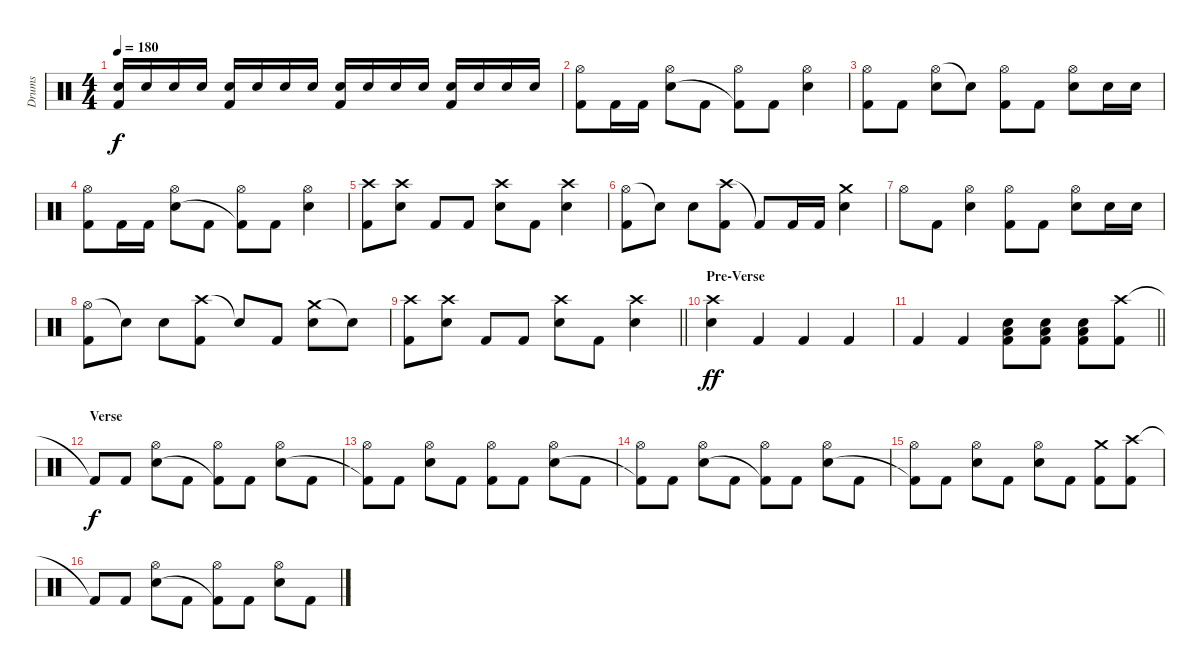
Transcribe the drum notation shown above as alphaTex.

\track ("Drums" "Drums") {instrument percussion}
\staff {score}
\articulation defaults
\ts (4 4)
\tempo 180
\clef neutral
\ks c
("Electric Snare (hit)" "Kick (hit) 2").16{dy f} "Electric Snare (hit)".16 "Electric Snare (hit)".16 "Electric Snare (hit)".16 ("Electric Snare (hit)" "Kick (hit) 2").16 "Electric Snare (hit)".16 "Electric Snare (hit)".16 "Electric Snare (hit)".16 ("Electric Snare (hit)" "Kick (hit) 2").16 "Electric Snare (hit)".16 "Electric Snare (hit)".16 "Electric Snare (hit)".16 ("Electric Snare (hit)" "Kick (hit) 2").16 "Electric Snare (hit)".16 "Electric Snare (hit)".16 "Electric Snare (hit)".16 |
("Hi-Hat (open)" "Kick (hit) 2").8 "Kick (hit) 2".16 "Kick (hit) 2".16 ("Hi-Hat (open)" "Electric Snare (hit)").8 "Kick (hit) 2".8 ("Hi-Hat (open)" "Kick (hit) 2"{t}).8 "Kick (hit) 2".8 ("Hi-Hat (open)" "Electric Snare (hit)").4 |
("Hi-Hat (open)" "Kick (hit) 2").8 "Kick (hit) 2".8 ("Hi-Hat (open)" "Electric Snare (hit)").8 "Snare (hit)"{t}.8 ("Hi-Hat (open)" "Kick (hit) 2").8 "Kick (hit) 2".8 ("Hi-Hat (open)" "Electric Snare (hit)").8 "Electric Snare (hit)".16 "Electric Snare (hit)".16 |
("Hi-Hat (open)" "Kick (hit) 2").8 "Kick (hit) 2".16 "Kick (hit) 2".16 ("Hi-Hat (open)" "Electric Snare (hit)").8 "Kick (hit) 2".8 ("Hi-Hat (open)" "Kick (hit) 2"{t}).8 "Kick (hit) 2".8 ("Hi-Hat (open)" "Electric Snare (hit)").4 |
("Crash high (hit)" "Kick (hit) 2").8 ("Crash high (hit)" "Electric Snare (hit)").8 "Kick (hit) 2".8 "Kick (hit) 2".8 ("Crash high (hit)" "Electric Snare (hit)").8 "Kick (hit) 2".8 ("Crash high (hit)" "Electric Snare (hit)").4 |
("Hi-Hat (open)" "Kick (hit) 2").8 "Snare (hit)"{t}.8 "Electric Snare (hit)".8 ("Crash high (hit)" "Kick (hit) 2").8 "Kick (hit) 2"{t}.8 "Kick (hit) 2".16 "Kick (hit) 2".16 ("Crash medium (hit)" "Electric Snare (hit)").4 |
"Hi-Hat (open)".8 "Kick (hit) 2".8 ("Hi-Hat (open)" "Electric Snare (hit)").4 ("Hi-Hat (open)" "Kick (hit) 2").8 "Kick (hit) 2".8 ("Hi-Hat (open)" "Electric Snare (hit)").8 "Electric Snare (hit)".16 "Electric Snare (hit)".16 |
("Hi-Hat (open)" "Kick (hit) 2").8 "Snare (hit)"{t}.8 "Electric Snare (hit)".8 ("Crash high (hit)" "Kick (hit) 2").8 "Snare (hit)"{t}.8 "Kick (hit) 2".8 ("Crash medium (hit)" "Electric Snare (hit)").8 "Snare (hit)"{t}.8 |
\barLineRight lightlight
("Crash high (hit)" "Kick (hit) 2").8 ("Crash high (hit)" "Electric Snare (hit)").8 "Kick (hit) 2".8 "Kick (hit) 2".8 ("Crash high (hit)" "Electric Snare (hit)").8 "Kick (hit) 2".8 ("Crash high (hit)" "Electric Snare (hit)").4 |
\section ("" "Pre-Verse")
("Crash high (hit)" "Electric Snare (hit)").4{dy ff} "Kick (hit) 2".4 "Kick (hit) 2".4 "Kick (hit) 2".4 |
\barLineRight lightlight "Kick (hit) 2".4 "Kick (hit) 2".4
("Low Floor Tom (hit)" "Electric Snare (hit)" "Kick (hit) 2").8 ("Low Floor Tom (hit)" "Electric Snare (hit)" "Kick (hit) 2").8 ("Low Floor Tom (hit)" "Electric Snare (hit)" "Kick (hit) 2").8 ("Crash high (hit)" "Kick (hit) 2").8 |
\section ("" "Verse")
"Kick (hit) 2"{t}.8{dy f} "Kick (hit) 2".8 ("Hi-Hat (open)" "Electric Snare (hit)").8 "Kick (hit) 2".8 ("Hi-Hat (open)" "Kick (hit) 2"{t}).8 "Kick (hit) 2".8 ("Hi-Hat (open)" "Electric Snare (hit)").8 "Kick (hit) 2".8 |
("Hi-Hat (open)" "Kick (hit) 2"{t}).8 "Kick (hit) 2".8 ("Hi-Hat (open)" "Electric Snare (hit)").8 "Kick (hit) 2".8 ("Hi-Hat (open)" "Kick (hit) 2").8 "Kick (hit) 2".8 ("Hi-Hat (open)" "Electric Snare (hit)").8 "Kick (hit) 2".8 |
("Hi-Hat (open)" "Kick (hit) 2"{t}).8 "Kick (hit) 2".8 ("Hi-Hat (open)" "Electric Snare (hit)").8 "Kick (hit) 2".8 ("Hi-Hat (open)" "Kick (hit) 2"{t}).8 "Kick (hit) 2".8 ("Hi-Hat (open)" "Electric Snare (hit)").8 "Kick (hit) 2".8 |
("Hi-Hat (open)" "Kick (hit) 2"{t}).8 "Kick (hit) 2".8 ("Hi-Hat (open)" "Electric Snare (hit)").8 "Kick (hit) 2".8 ("Hi-Hat (open)" "Electric Snare (hit)").8 "Kick (hit) 2".8 ("Crash medium (hit)" "Kick (hit) 2").8 ("Crash high (hit)" "Kick (hit) 2").8 |
"Kick (hit) 2"{t}.8 "Kick (hit) 2".8 ("Hi-Hat (open)" "Electric Snare (hit)").8 "Kick (hit) 2".8 ("Hi-Hat (open)" "Kick (hit) 2"{t}).8 "Kick (hit) 2".8 ("Hi-Hat (open)" "Electric Snare (hit)").8 "Kick (hit) 2".8
